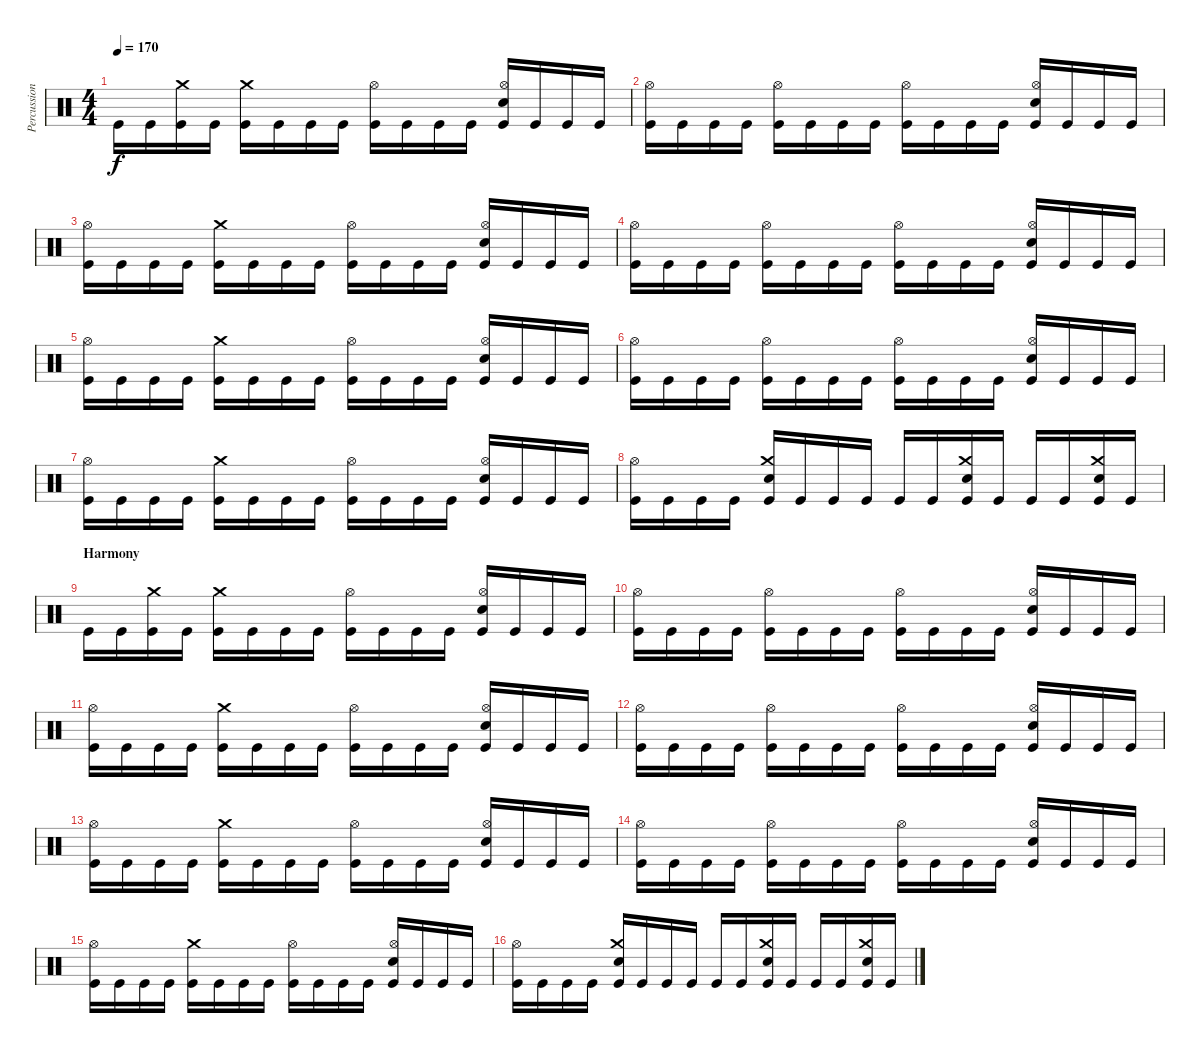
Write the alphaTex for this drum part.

\track ("Percussion" "Percussion") {instrument percussion}
\staff {score}
\articulation defaults
\ts (4 4)
\tempo 170
\clef neutral
\ks c "Kick (hit)".16{dy f} "Kick (hit)".16
("Crash medium (hit)" "Kick (hit)").16 "Kick (hit)".16 ("Crash medium (hit)" "Kick (hit)").16 "Kick (hit)".16 "Kick (hit)".16 "Kick (hit)".16 ("Hi-Hat (open)" "Kick (hit)").16 "Kick (hit)".16 "Kick (hit)".16 "Kick (hit)".16 ("Hi-Hat (open)" "Snare (hit) 2" "Kick (hit)").16 "Kick (hit)".16 "Kick (hit)".16 "Kick (hit)".16 |
("Hi-Hat (open)" "Kick (hit)").16 "Kick (hit)".16 "Kick (hit)".16 "Kick (hit)".16 ("Hi-Hat (open)" "Kick (hit)").16 "Kick (hit)".16 "Kick (hit)".16 "Kick (hit)".16 ("Hi-Hat (open)" "Kick (hit)").16 "Kick (hit)".16 "Kick (hit)".16 "Kick (hit)".16 ("Hi-Hat (open)" "Snare (hit) 2" "Kick (hit)").16 "Kick (hit)".16 "Kick (hit)".16 "Kick (hit)".16 |
("Hi-Hat (open)" "Kick (hit)").16 "Kick (hit)".16 "Kick (hit)".16 "Kick (hit)".16 ("Crash medium (hit)" "Kick (hit)").16 "Kick (hit)".16 "Kick (hit)".16 "Kick (hit)".16 ("Hi-Hat (open)" "Kick (hit)").16 "Kick (hit)".16 "Kick (hit)".16 "Kick (hit)".16 ("Hi-Hat (open)" "Snare (hit) 2" "Kick (hit)").16 "Kick (hit)".16 "Kick (hit)".16 "Kick (hit)".16 |
("Hi-Hat (open)" "Kick (hit)").16 "Kick (hit)".16 "Kick (hit)".16 "Kick (hit)".16 ("Hi-Hat (open)" "Kick (hit)").16 "Kick (hit)".16 "Kick (hit)".16 "Kick (hit)".16 ("Hi-Hat (open)" "Kick (hit)").16 "Kick (hit)".16 "Kick (hit)".16 "Kick (hit)".16 ("Hi-Hat (open)" "Snare (hit) 2" "Kick (hit)").16 "Kick (hit)".16 "Kick (hit)".16 "Kick (hit)".16 |
("Hi-Hat (open)" "Kick (hit)").16 "Kick (hit)".16 "Kick (hit)".16 "Kick (hit)".16 ("Crash medium (hit)" "Kick (hit)").16 "Kick (hit)".16 "Kick (hit)".16 "Kick (hit)".16 ("Hi-Hat (open)" "Kick (hit)").16 "Kick (hit)".16 "Kick (hit)".16 "Kick (hit)".16 ("Hi-Hat (open)" "Snare (hit) 2" "Kick (hit)").16 "Kick (hit)".16 "Kick (hit)".16 "Kick (hit)".16 |
("Hi-Hat (open)" "Kick (hit)").16 "Kick (hit)".16 "Kick (hit)".16 "Kick (hit)".16 ("Hi-Hat (open)" "Kick (hit)").16 "Kick (hit)".16 "Kick (hit)".16 "Kick (hit)".16 ("Hi-Hat (open)" "Kick (hit)").16 "Kick (hit)".16 "Kick (hit)".16 "Kick (hit)".16 ("Hi-Hat (open)" "Snare (hit) 2" "Kick (hit)").16 "Kick (hit)".16 "Kick (hit)".16 "Kick (hit)".16 |
("Hi-Hat (open)" "Kick (hit)").16 "Kick (hit)".16 "Kick (hit)".16 "Kick (hit)".16 ("Crash medium (hit)" "Kick (hit)").16 "Kick (hit)".16 "Kick (hit)".16 "Kick (hit)".16 ("Hi-Hat (open)" "Kick (hit)").16 "Kick (hit)".16 "Kick (hit)".16 "Kick (hit)".16 ("Hi-Hat (open)" "Snare (hit) 2" "Kick (hit)").16 "Kick (hit)".16 "Kick (hit)".16 "Kick (hit)".16 |
("Hi-Hat (open)" "Kick (hit)").16 "Kick (hit)".16 "Kick (hit)".16 "Kick (hit)".16 ("Crash medium (hit)" "Snare (hit) 2" "Kick (hit)").16 "Kick (hit)".16 "Kick (hit)".16 "Kick (hit)".16 "Kick (hit)".16 "Kick (hit)".16 ("Crash medium (hit)" "Snare (hit) 2" "Kick (hit)").16 "Kick (hit)".16 "Kick (hit)".16 "Kick (hit)".16 ("Crash medium (hit)" "Snare (hit) 2" "Kick (hit)").16 "Kick (hit)".16 |
\section ("" "Harmony")
"Kick (hit)".16 "Kick (hit)".16 ("Crash medium (hit)" "Kick (hit)").16 "Kick (hit)".16 ("Crash medium (hit)" "Kick (hit)").16 "Kick (hit)".16 "Kick (hit)".16 "Kick (hit)".16 ("Hi-Hat (open)" "Kick (hit)").16 "Kick (hit)".16 "Kick (hit)".16 "Kick (hit)".16 ("Hi-Hat (open)" "Snare (hit) 2" "Kick (hit)").16 "Kick (hit)".16 "Kick (hit)".16 "Kick (hit)".16 |
("Hi-Hat (open)" "Kick (hit)").16 "Kick (hit)".16 "Kick (hit)".16 "Kick (hit)".16 ("Hi-Hat (open)" "Kick (hit)").16 "Kick (hit)".16 "Kick (hit)".16 "Kick (hit)".16 ("Hi-Hat (open)" "Kick (hit)").16 "Kick (hit)".16 "Kick (hit)".16 "Kick (hit)".16 ("Hi-Hat (open)" "Snare (hit) 2" "Kick (hit)").16 "Kick (hit)".16 "Kick (hit)".16 "Kick (hit)".16 |
("Hi-Hat (open)" "Kick (hit)").16 "Kick (hit)".16 "Kick (hit)".16 "Kick (hit)".16 ("Crash medium (hit)" "Kick (hit)").16 "Kick (hit)".16 "Kick (hit)".16 "Kick (hit)".16 ("Hi-Hat (open)" "Kick (hit)").16 "Kick (hit)".16 "Kick (hit)".16 "Kick (hit)".16 ("Hi-Hat (open)" "Snare (hit) 2" "Kick (hit)").16 "Kick (hit)".16 "Kick (hit)".16 "Kick (hit)".16 |
("Hi-Hat (open)" "Kick (hit)").16 "Kick (hit)".16 "Kick (hit)".16 "Kick (hit)".16 ("Hi-Hat (open)" "Kick (hit)").16 "Kick (hit)".16 "Kick (hit)".16 "Kick (hit)".16 ("Hi-Hat (open)" "Kick (hit)").16 "Kick (hit)".16 "Kick (hit)".16 "Kick (hit)".16 ("Hi-Hat (open)" "Snare (hit) 2" "Kick (hit)").16 "Kick (hit)".16 "Kick (hit)".16 "Kick (hit)".16 |
("Hi-Hat (open)" "Kick (hit)").16 "Kick (hit)".16 "Kick (hit)".16 "Kick (hit)".16 ("Crash medium (hit)" "Kick (hit)").16 "Kick (hit)".16 "Kick (hit)".16 "Kick (hit)".16 ("Hi-Hat (open)" "Kick (hit)").16 "Kick (hit)".16 "Kick (hit)".16 "Kick (hit)".16 ("Hi-Hat (open)" "Snare (hit) 2" "Kick (hit)").16 "Kick (hit)".16 "Kick (hit)".16 "Kick (hit)".16 |
("Hi-Hat (open)" "Kick (hit)").16 "Kick (hit)".16 "Kick (hit)".16 "Kick (hit)".16 ("Hi-Hat (open)" "Kick (hit)").16 "Kick (hit)".16 "Kick (hit)".16 "Kick (hit)".16 ("Hi-Hat (open)" "Kick (hit)").16 "Kick (hit)".16 "Kick (hit)".16 "Kick (hit)".16 ("Hi-Hat (open)" "Snare (hit) 2" "Kick (hit)").16 "Kick (hit)".16 "Kick (hit)".16 "Kick (hit)".16 |
("Hi-Hat (open)" "Kick (hit)").16 "Kick (hit)".16 "Kick (hit)".16 "Kick (hit)".16 ("Crash medium (hit)" "Kick (hit)").16 "Kick (hit)".16 "Kick (hit)".16 "Kick (hit)".16 ("Hi-Hat (open)" "Kick (hit)").16 "Kick (hit)".16 "Kick (hit)".16 "Kick (hit)".16 ("Hi-Hat (open)" "Snare (hit) 2" "Kick (hit)").16 "Kick (hit)".16 "Kick (hit)".16 "Kick (hit)".16 |
("Hi-Hat (open)" "Kick (hit)").16 "Kick (hit)".16 "Kick (hit)".16 "Kick (hit)".16 ("Crash medium (hit)" "Snare (hit) 2" "Kick (hit)").16 "Kick (hit)".16 "Kick (hit)".16 "Kick (hit)".16 "Kick (hit)".16 "Kick (hit)".16 ("Crash medium (hit)" "Snare (hit) 2" "Kick (hit)").16 "Kick (hit)".16 "Kick (hit)".16 "Kick (hit)".16 ("Crash medium (hit)" "Snare (hit) 2" "Kick (hit)").16 "Kick (hit)".16
